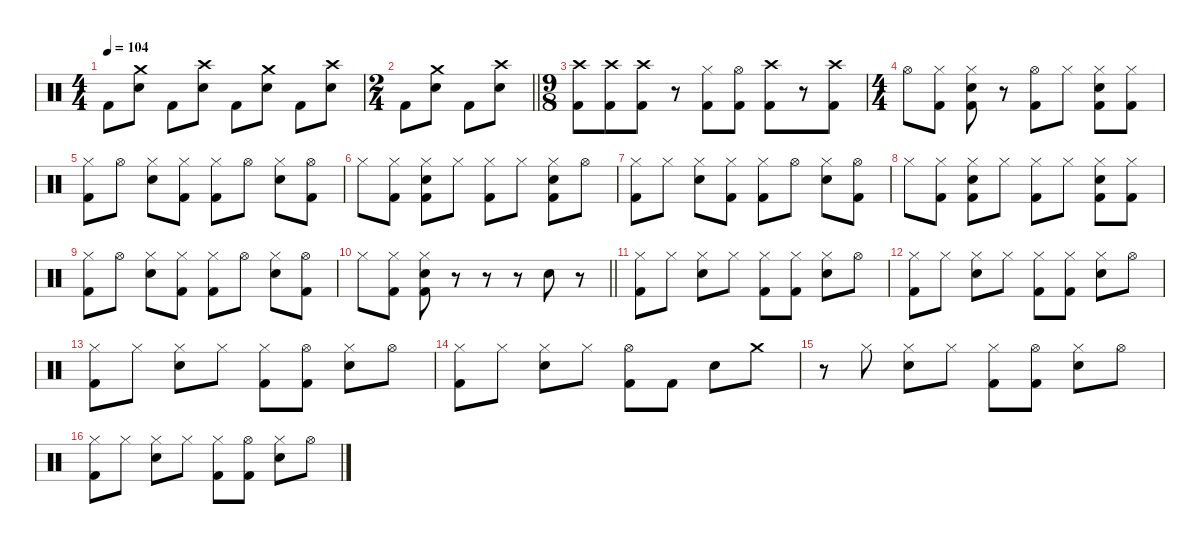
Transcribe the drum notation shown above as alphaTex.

\defaultSystemsLayout 4
\hideDynamics
\bracketExtendMode nobrackets
\singleTrackTrackNamePolicy hidden
\multiTrackTrackNamePolicy hidden
\firstSystemTrackNameMode fullname
\firstSystemTrackNameOrientation horizontal
\otherSystemsTrackNameOrientation horizontal
\track ("Drums" "drm.") {instrument percussion}
\staff {score}
\articulation defaults
\ts (4 4)
\tempo 104
\clef neutral
\ks c "Kick (hit) 2".8{dy f beam Down}
("Crash medium (hit)" "Snare (hit) 2").8{beam Down} "Kick (hit) 2".8{beam Down} ("Crash high (hit)" "Snare (hit) 2").8{beam Down} "Kick (hit) 2".8{beam Down} ("Crash medium (hit)" "Snare (hit) 2").8{beam Down} "Kick (hit) 2".8{beam Down} ("Crash high (hit)" "Snare (hit) 2").8{beam Down} |
\ts (2 4)
\beaming (8 2 2)
\barLineRight lightlight "Kick (hit) 2".8{beam Down}
("Crash medium (hit)" "Snare (hit) 2").8{beam Down} "Kick (hit) 2".8{beam Down} ("Crash high (hit)" "Snare (hit) 2").8{beam Down} |
\ts (9 8)
\beaming (8 3 3 3)
\section ("" "")
("Crash high (hit)" "Kick (hit) 2").8{beam Down} ("Crash high (hit)" "Kick (hit) 2").8{beam Down} ("Crash high (hit)" "Kick (hit) 2").8{beam Down} r.8{beam Down} ("Hi-Hat (closed)" "Kick (hit) 2").8{beam Down} ("Hi-Hat (open)" "Kick (hit) 2").8{beam Down} ("Crash high (hit)" "Kick (hit) 2").8{beam Down} r.8{beam Down} ("Crash high (hit)" "Kick (hit) 2").8{beam Down} |
\ts (4 4)
\beaming (8 2 2 2 2)
"Hi-Hat (open)".8{beam Down} ("Hi-Hat (closed)" "Kick (hit) 2").8{beam Down} ("Hi-Hat (closed)" "Snare (hit) 2" "Kick (hit) 2").8{beam Down} r.8{beam Down} ("Hi-Hat (open)" "Kick (hit) 2").8{beam Down} "Hi-Hat (closed)".8{beam Down} ("Hi-Hat (closed)" "Snare (hit) 2" "Kick (hit) 2").8{beam Down} ("Hi-Hat (closed)" "Kick (hit) 2").8{beam Down} |
("Hi-Hat (closed)" "Kick (hit) 2").8{beam Down} "Hi-Hat (open)".8{beam Down} ("Hi-Hat (closed)" "Snare (hit) 2").8{beam Down} ("Hi-Hat (closed)" "Kick (hit) 2").8{beam Down} ("Hi-Hat (closed)" "Kick (hit) 2").8{beam Down} "Hi-Hat (open)".8{beam Down} ("Hi-Hat (closed)" "Snare (hit) 2").8{beam Down} ("Hi-Hat (open)" "Kick (hit) 2").8{beam Down} |
"Hi-Hat (closed)".8{beam Down} ("Hi-Hat (closed)" "Kick (hit) 2").8{beam Down} ("Hi-Hat (closed)" "Snare (hit) 2" "Kick (hit) 2").8{beam Down} "Hi-Hat (closed)".8{beam Down} ("Hi-Hat (closed)" "Kick (hit) 2").8{beam Down} "Hi-Hat (closed)".8{beam Down} ("Hi-Hat (closed)" "Snare (hit) 2" "Kick (hit) 2").8{beam Down} "Hi-Hat (open)".8{beam Down} |
("Hi-Hat (closed)" "Kick (hit) 2").8{beam Down} "Hi-Hat (closed)".8{beam Down} ("Hi-Hat (closed)" "Snare (hit) 2").8{beam Down} ("Hi-Hat (closed)" "Kick (hit) 2").8{beam Down} ("Hi-Hat (closed)" "Kick (hit) 2").8{beam Down} "Hi-Hat (open)".8{beam Down} ("Hi-Hat (closed)" "Snare (hit) 2").8{beam Down} ("Hi-Hat (open)" "Kick (hit) 2").8{beam Down} |
"Hi-Hat (closed)".8{beam Down} ("Hi-Hat (closed)" "Kick (hit) 2").8{beam Down} ("Hi-Hat (closed)" "Snare (hit) 2" "Kick (hit) 2").8{beam Down} "Hi-Hat (closed)".8{beam Down} ("Hi-Hat (closed)" "Kick (hit) 2").8{beam Down} "Hi-Hat (closed)".8{beam Down} ("Hi-Hat (closed)" "Snare (hit) 2" "Kick (hit) 2").8{beam Down} ("Hi-Hat (closed)" "Kick (hit) 2").8{beam Down} |
("Hi-Hat (closed)" "Kick (hit) 2").8{beam Down} "Hi-Hat (open)".8{beam Down} ("Hi-Hat (closed)" "Snare (hit) 2").8{beam Down} ("Hi-Hat (closed)" "Kick (hit) 2").8{beam Down} ("Hi-Hat (closed)" "Kick (hit) 2").8{beam Down} "Hi-Hat (open)".8{beam Down} ("Hi-Hat (closed)" "Snare (hit) 2").8{beam Down} ("Hi-Hat (open)" "Kick (hit) 2").8{beam Down} |
\barLineRight lightlight "Hi-Hat (closed)".8{beam Down}
("Hi-Hat (closed)" "Kick (hit) 2").8{beam Down} ("Hi-Hat (closed)" "Snare (hit) 2" "Kick (hit) 2").8{beam Down} r.8{beam Down} r.8{beam Down} r.8{beam Down} "Snare (hit) 2".8{beam Down} r.8{beam Down} |
\section ("" "")
("Hi-Hat (closed)" "Kick (hit) 2").8{beam Down} "Hi-Hat (closed)".8{beam Down} ("Hi-Hat (closed)" "Snare (hit) 2").8{beam Down} "Hi-Hat (closed)".8{beam Down} ("Hi-Hat (closed)" "Kick (hit) 2").8{beam Down} ("Hi-Hat (closed)" "Kick (hit) 2").8{beam Down} ("Hi-Hat (closed)" "Snare (hit) 2").8{beam Down} "Hi-Hat (open)".8{beam Down} |
("Hi-Hat (closed)" "Kick (hit) 2").8{beam Down} "Hi-Hat (closed)".8{beam Down} ("Hi-Hat (closed)" "Snare (hit) 2").8{beam Down} "Hi-Hat (closed)".8{beam Down} ("Hi-Hat (closed)" "Kick (hit) 2").8{beam Down} ("Hi-Hat (closed)" "Kick (hit) 2").8{beam Down} ("Hi-Hat (closed)" "Snare (hit) 2").8{beam Down} "Hi-Hat (open)".8{beam Down} |
("Hi-Hat (closed)" "Kick (hit) 2").8{beam Down} "Hi-Hat (closed)".8{beam Down} ("Hi-Hat (closed)" "Snare (hit) 2").8{beam Down} "Hi-Hat (closed)".8{beam Down} ("Hi-Hat (closed)" "Kick (hit) 2").8{beam Down} ("Hi-Hat (open)" "Kick (hit) 2").8{beam Down} ("Hi-Hat (closed)" "Snare (hit) 2").8{beam Down} "Hi-Hat (open)".8{beam Down} |
("Hi-Hat (closed)" "Kick (hit) 2").8{beam Down} "Hi-Hat (closed)".8{beam Down} ("Hi-Hat (closed)" "Snare (hit) 2").8{beam Down} "Hi-Hat (closed)".8{beam Down} ("Hi-Hat (open)" "Kick (hit) 2").8{beam Down} "Kick (hit) 2".8{beam Down} "Snare (hit) 2".8{beam Down} "Crash medium (hit)".8{beam Down} |
r.8{beam Down} "Hi-Hat (closed)".8{beam Down} ("Hi-Hat (closed)" "Snare (hit) 2").8{beam Down} "Hi-Hat (closed)".8{beam Down} ("Hi-Hat (closed)" "Kick (hit) 2").8{beam Down} ("Hi-Hat (open)" "Kick (hit) 2").8{beam Down} ("Hi-Hat (closed)" "Snare (hit) 2").8{beam Down} "Hi-Hat (open)".8{beam Down} |
("Hi-Hat (closed)" "Kick (hit) 2").8{beam Down} "Hi-Hat (closed)".8{beam Down} ("Hi-Hat (closed)" "Snare (hit) 2").8{beam Down} "Hi-Hat (closed)".8{beam Down} ("Hi-Hat (closed)" "Kick (hit) 2").8{beam Down} ("Hi-Hat (open)" "Kick (hit) 2").8{beam Down} ("Hi-Hat (closed)" "Snare (hit) 2").8{beam Down} "Hi-Hat (open)".8{beam Down}
